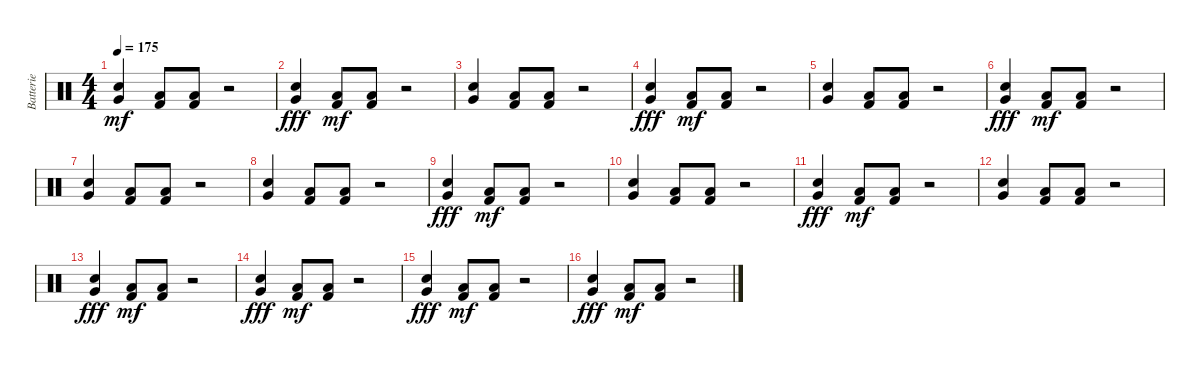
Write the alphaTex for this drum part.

\track ("Batterie" "Batterie") {instrument percussion}
\staff {score}
\articulation defaults
\ts (4 4)
\tempo 175
\clef neutral
\ks c
("Electric Snare (hit)" "Very Low Tom (hit)").4{dy mf} ("Kick (hit) 2" "Low Floor Tom (hit)").8 ("Kick (hit) 2" "Low Floor Tom (hit)").8 r.2 |
("Electric Snare (hit)" "Very Low Tom (hit)").4{dy fff} ("Kick (hit) 2" "Low Floor Tom (hit)").8{dy mf} ("Kick (hit) 2" "Low Floor Tom (hit)").8 r.2 |
("Electric Snare (hit)" "Very Low Tom (hit)").4 ("Kick (hit) 2" "Low Floor Tom (hit)").8 ("Kick (hit) 2" "Low Floor Tom (hit)").8 r.2 |
("Electric Snare (hit)" "Very Low Tom (hit)").4{dy fff} ("Kick (hit) 2" "Low Floor Tom (hit)").8{dy mf} ("Kick (hit) 2" "Low Floor Tom (hit)").8 r.2 |
("Electric Snare (hit)" "Very Low Tom (hit)").4 ("Kick (hit) 2" "Low Floor Tom (hit)").8 ("Kick (hit) 2" "Low Floor Tom (hit)").8 r.2 |
("Electric Snare (hit)" "Very Low Tom (hit)").4{dy fff} ("Kick (hit) 2" "Low Floor Tom (hit)").8{dy mf} ("Kick (hit) 2" "Low Floor Tom (hit)").8 r.2 |
("Electric Snare (hit)" "Very Low Tom (hit)").4 ("Kick (hit) 2" "Low Floor Tom (hit)").8 ("Kick (hit) 2" "Low Floor Tom (hit)").8 r.2 |
("Electric Snare (hit)" "Very Low Tom (hit)").4 ("Kick (hit) 2" "Low Floor Tom (hit)").8 ("Kick (hit) 2" "Low Floor Tom (hit)").8 r.2 |
("Electric Snare (hit)" "Very Low Tom (hit)").4{dy fff} ("Kick (hit) 2" "Low Floor Tom (hit)").8{dy mf} ("Kick (hit) 2" "Low Floor Tom (hit)").8 r.2 |
("Electric Snare (hit)" "Very Low Tom (hit)").4 ("Kick (hit) 2" "Low Floor Tom (hit)").8 ("Kick (hit) 2" "Low Floor Tom (hit)").8 r.2 |
("Electric Snare (hit)" "Very Low Tom (hit)").4{dy fff} ("Kick (hit) 2" "Low Floor Tom (hit)").8{dy mf} ("Kick (hit) 2" "Low Floor Tom (hit)").8 r.2 |
("Electric Snare (hit)" "Very Low Tom (hit)").4 ("Kick (hit) 2" "Low Floor Tom (hit)").8 ("Kick (hit) 2" "Low Floor Tom (hit)").8 r.2 |
("Electric Snare (hit)" "Very Low Tom (hit)").4{dy fff} ("Kick (hit) 2" "Low Floor Tom (hit)").8{dy mf} ("Kick (hit) 2" "Low Floor Tom (hit)").8 r.2 |
("Electric Snare (hit)" "Very Low Tom (hit)").4{dy fff} ("Kick (hit) 2" "Low Floor Tom (hit)").8{dy mf} ("Kick (hit) 2" "Low Floor Tom (hit)").8 r.2 |
("Electric Snare (hit)" "Very Low Tom (hit)").4{dy fff} ("Kick (hit) 2" "Low Floor Tom (hit)").8{dy mf} ("Kick (hit) 2" "Low Floor Tom (hit)").8 r.2 |
("Electric Snare (hit)" "Very Low Tom (hit)").4{dy fff} ("Kick (hit) 2" "Low Floor Tom (hit)").8{dy mf} ("Kick (hit) 2" "Low Floor Tom (hit)").8 r.2
